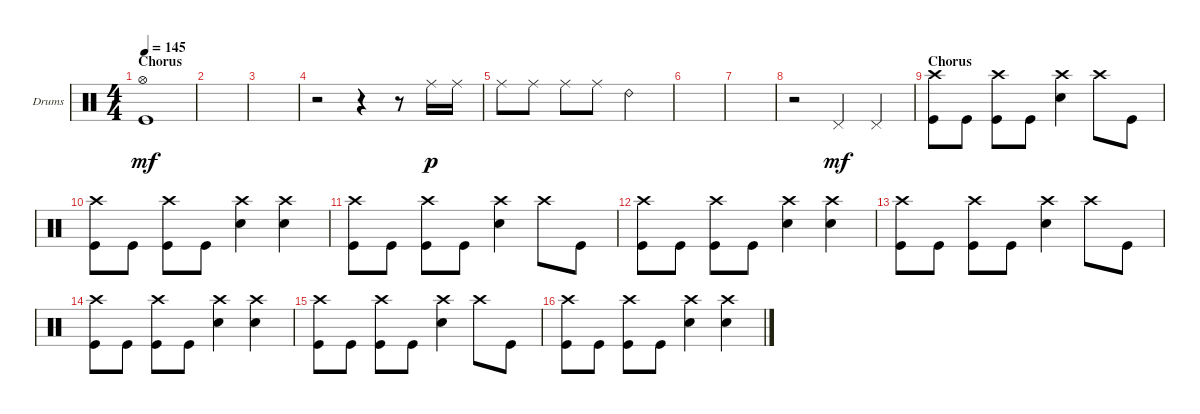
\defaultSystemsLayout 4
\bracketExtendMode groupsimilarinstruments
\firstSystemTrackNameOrientation horizontal
\otherSystemsTrackNameOrientation horizontal
\track ("Matt Uychich" "Drums") {instrument percussion}
\staff {score}
\articulation defaults
\ts (4 4)
\section ("" "Chorus")
\tempo 145
\clef neutral
\scale
0.333333
\ks c
("Kick (hit)" "Hi-Hat (open)").1{dy mf} |
\scale
0.333333 |
\scale
0.333333 |
\scale
0.333333 r.2 r.4 r.8 "Ride (middle)".16{dy p} "Ride (middle)".16 |
\scale
0.333333 "Ride (middle)".8 "Ride (middle)".8 "Ride (middle)".8 "Ride (middle)".8 "Ride (bell) 2".2 |
\scale
0.333333 |
\scale
0.333333 |
\scale
0.333333 r.2 "Pedal Hi-Hat (hit)".4{dy mf} "Pedal Hi-Hat (hit)".4 |
\section ("" "Chorus")
\scale
0.333333 ("Crash high (hit)" "Kick (hit)").8 "Kick (hit)".8 ("Kick (hit)" "Crash high (hit)").8 "Kick (hit)".8 ("Snare (hit) 2" "Crash high (hit)").4 "Crash high (hit)".8 "Kick (hit)".8 |
\scale
0.333333 ("Kick (hit)" "Crash high (hit)").8 "Kick (hit)".8 ("Kick (hit)" "Crash high (hit)").8 "Kick (hit)".8 ("Crash high (hit)" "Snare (hit) 2").4 ("Crash high (hit)" "Snare (hit) 2").4 |
\scale
0.333333 ("Crash high (hit)" "Kick (hit)").8 "Kick (hit)".8 ("Kick (hit)" "Crash high (hit)").8 "Kick (hit)".8 ("Snare (hit) 2" "Crash high (hit)").4 "Crash high (hit)".8 "Kick (hit)".8 |
\scale
0.333333 ("Kick (hit)" "Crash high (hit)").8 "Kick (hit)".8 ("Kick (hit)" "Crash high (hit)").8 "Kick (hit)".8 ("Crash high (hit)" "Snare (hit) 2").4 ("Crash high (hit)" "Snare (hit) 2").4 |
\scale
0.333333 ("Crash high (hit)" "Kick (hit)").8 "Kick (hit)".8 ("Kick (hit)" "Crash high (hit)").8 "Kick (hit)".8 ("Snare (hit) 2" "Crash high (hit)").4 "Crash high (hit)".8 "Kick (hit)".8 |
\scale
0.333333 ("Kick (hit)" "Crash high (hit)").8 "Kick (hit)".8 ("Kick (hit)" "Crash high (hit)").8 "Kick (hit)".8 ("Crash high (hit)" "Snare (hit) 2").4 ("Crash high (hit)" "Snare (hit) 2").4 |
\scale
0.333333 ("Crash high (hit)" "Kick (hit)").8 "Kick (hit)".8 ("Kick (hit)" "Crash high (hit)").8 "Kick (hit)".8 ("Snare (hit) 2" "Crash high (hit)").4 "Crash high (hit)".8 "Kick (hit)".8 |
\scale
0.333333 ("Kick (hit)" "Crash high (hit)").8 "Kick (hit)".8 ("Kick (hit)" "Crash high (hit)").8 "Kick (hit)".8 ("Crash high (hit)" "Snare (hit) 2").4 ("Crash high (hit)" "Snare (hit) 2").4
